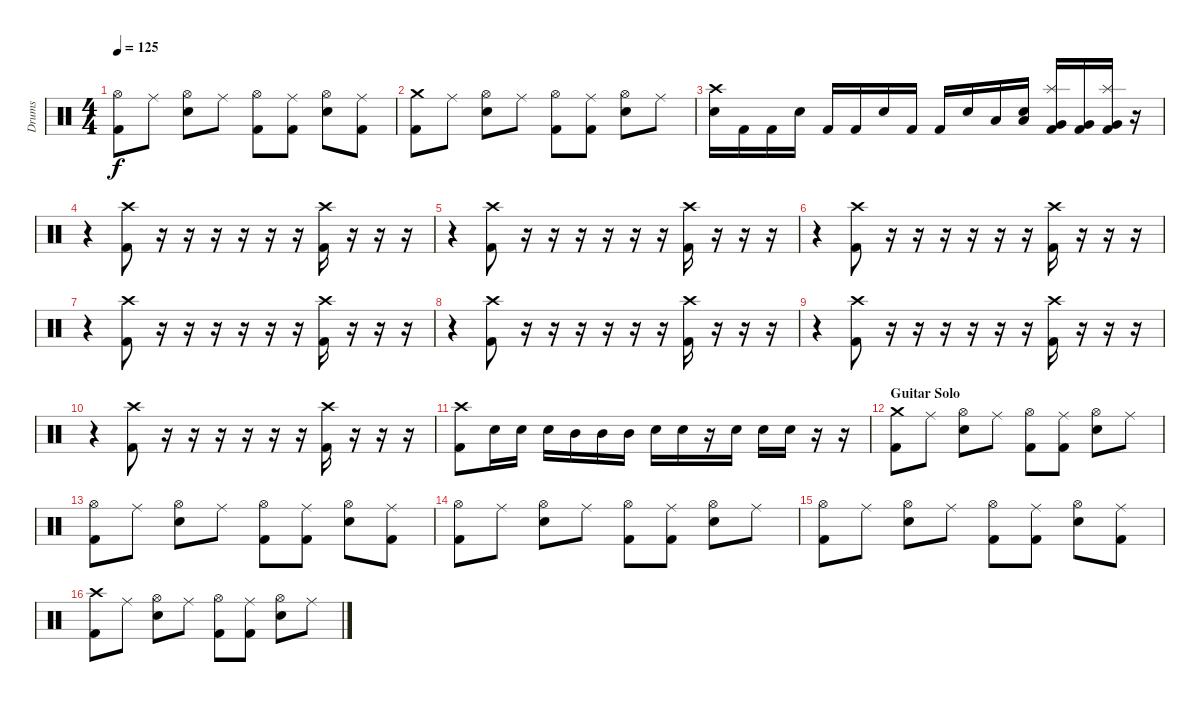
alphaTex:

\track ("Drums" "Drums") {instrument percussion}
\staff {score}
\articulation defaults
\ts (4 4)
\tempo 125
\clef neutral
\ks c
("Hi-Hat (open)" "Kick (hit) 2").8{dy f} "Ride (middle)".8 ("Hi-Hat (open)" "Electric Snare (hit)").8 "Ride (middle)".8 ("Hi-Hat (open)" "Kick (hit) 2").8 ("Ride (middle)" "Kick (hit) 2").8 ("Hi-Hat (open)" "Electric Snare (hit)").8 ("Ride (middle)" "Kick (hit) 2").8 |
("Crash medium (hit)" "Kick (hit) 2").8 "Ride (middle)".8 ("Hi-Hat (open)" "Electric Snare (hit)").8 "Ride (middle)".8 ("Hi-Hat (open)" "Kick (hit) 2").8 ("Ride (middle)" "Kick (hit) 2").8 ("Hi-Hat (open)" "Electric Snare (hit)").8 "Ride (middle)".8 |
("Crash high (hit)" "Electric Snare (hit)").16 "Kick (hit) 2".16 "Kick (hit) 2".16 "Electric Snare (hit)".16 "Kick (hit) 2".16 "Kick (hit) 2".16 "Electric Snare (hit)".16 "Kick (hit) 2".16 "Kick (hit) 2".16 "Electric Snare (hit)".16 "Low Tom (hit)".16 ("Low Tom (hit)" "Electric Snare (hit)").16 ("Splash (hit)" "Very Low Tom (hit)" "Kick (hit) 2").16 ("Very Low Tom (hit)" "Kick (hit) 2").16 ("Splash (hit)" "Very Low Tom (hit)" "Kick (hit) 2").16 r.16 |
r.4 ("Crash high (hit)" "Kick (hit) 2").8 r.16 r.16 r.16 r.16 r.16 r.16 ("Crash high (hit)" "Kick (hit) 2").16 r.16 r.16 r.16 |
r.4 ("Crash high (hit)" "Kick (hit) 2").8 r.16 r.16 r.16 r.16 r.16 r.16 ("Crash high (hit)" "Kick (hit) 2").16 r.16 r.16 r.16 |
r.4 ("Crash high (hit)" "Kick (hit) 2").8 r.16 r.16 r.16 r.16 r.16 r.16 ("Crash high (hit)" "Kick (hit) 2").16 r.16 r.16 r.16 |
r.4 ("Crash high (hit)" "Kick (hit) 2").8 r.16 r.16 r.16 r.16 r.16 r.16 ("Crash high (hit)" "Kick (hit) 2").16 r.16 r.16 r.16 |
r.4 ("Crash high (hit)" "Kick (hit) 2").8 r.16 r.16 r.16 r.16 r.16 r.16 ("Crash high (hit)" "Kick (hit) 2").16 r.16 r.16 r.16 |
r.4 ("Crash high (hit)" "Kick (hit) 2").8 r.16 r.16 r.16 r.16 r.16 r.16 ("Crash high (hit)" "Kick (hit) 2").16 r.16 r.16 r.16 |
r.4 ("Crash high (hit)" "Kick (hit) 2").8 r.16 r.16 r.16 r.16 r.16 r.16 ("Crash high (hit)" "Kick (hit) 2").16 r.16 r.16 r.16 |
("Crash high (hit)" "Kick (hit) 2").8 "Electric Snare (hit)".16 "Electric Snare (hit)".16 "Electric Snare (hit)".16 "Mid Tom (hit)".16 "Mid Tom (hit)".16 "Mid Tom (hit)".16 "Electric Snare (hit)".16 "Electric Snare (hit)".16 r.16 "Electric Snare (hit)".16 "Electric Snare (hit)".16 "Electric Snare (hit)".16 r.16 r.16 |
\section ("" "Guitar Solo")
("Crash medium (hit)" "Kick (hit) 2").8 "Ride (middle)".8 ("Hi-Hat (open)" "Electric Snare (hit)").8 "Ride (middle)".8 ("Hi-Hat (open)" "Kick (hit) 2").8 ("Ride (middle)" "Kick (hit) 2").8 ("Hi-Hat (open)" "Electric Snare (hit)").8 "Ride (middle)".8 |
("Hi-Hat (open)" "Kick (hit) 2").8 "Ride (middle)".8 ("Hi-Hat (open)" "Electric Snare (hit)").8 "Ride (middle)".8 ("Hi-Hat (open)" "Kick (hit) 2").8 ("Ride (middle)" "Kick (hit) 2").8 ("Hi-Hat (open)" "Electric Snare (hit)").8 ("Ride (middle)" "Kick (hit) 2").8 |
("Hi-Hat (open)" "Kick (hit) 2").8 "Ride (middle)".8 ("Hi-Hat (open)" "Electric Snare (hit)").8 "Ride (middle)".8 ("Hi-Hat (open)" "Kick (hit) 2").8 ("Ride (middle)" "Kick (hit) 2").8 ("Hi-Hat (open)" "Electric Snare (hit)").8 "Ride (middle)".8 |
("Hi-Hat (open)" "Kick (hit) 2").8 "Ride (middle)".8 ("Hi-Hat (open)" "Electric Snare (hit)").8 "Ride (middle)".8 ("Hi-Hat (open)" "Kick (hit) 2").8 ("Ride (middle)" "Kick (hit) 2").8 ("Hi-Hat (open)" "Electric Snare (hit)").8 ("Ride (middle)" "Kick (hit) 2").8 |
("Crash high (hit)" "Kick (hit) 2").8 "Ride (middle)".8 ("Hi-Hat (open)" "Electric Snare (hit)").8 "Ride (middle)".8 ("Hi-Hat (open)" "Kick (hit) 2").8 ("Ride (middle)" "Kick (hit) 2").8 ("Hi-Hat (open)" "Electric Snare (hit)").8 "Ride (middle)".8
